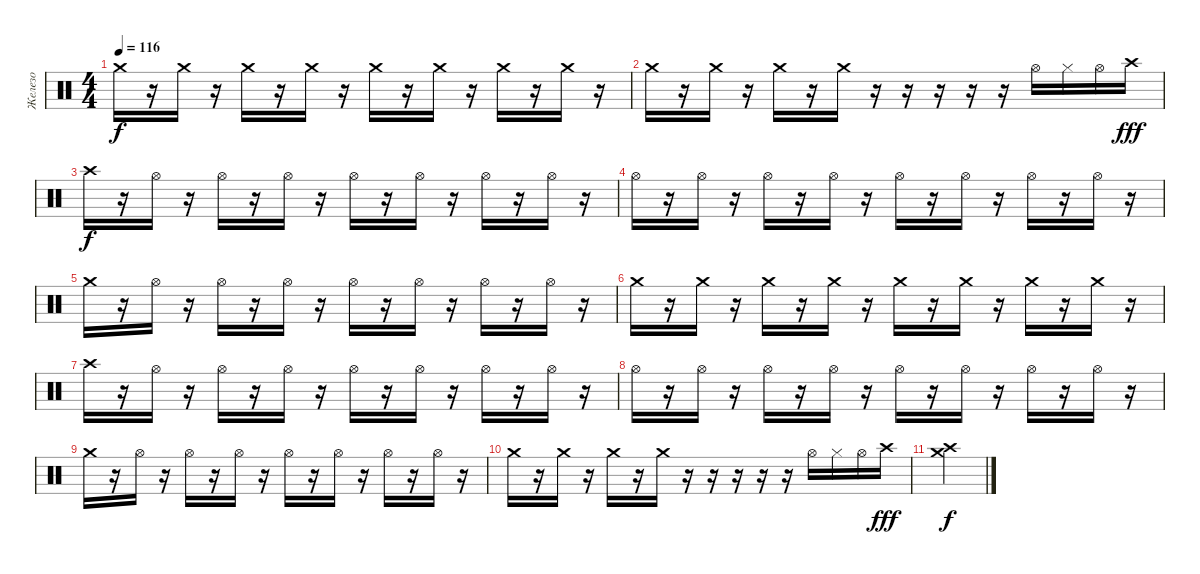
\track ("Железо" "Железо") {instrument percussion}
\staff {score}
\articulation defaults
\ts (4 4)
\tempo 116
\clef neutral
\ks c "Crash medium (hit)".16{dy f}
r.16 "Crash medium (hit)".16 r.16 "Crash medium (hit)".16 r.16 "Crash medium (hit)".16 r.16 "Crash medium (hit)".16 r.16 "Crash medium (hit)".16 r.16 "Crash medium (hit)".16 r.16 "Crash medium (hit)".16 r.16 |
"Crash medium (hit)".16 r.16 "Crash medium (hit)".16 r.16 "Crash medium (hit)".16 r.16 "Crash medium (hit)".16 r.16 r.16 r.16 r.16 r.16 "Hi-Hat (open)".16 "Hi-Hat (closed)".16 "Hi-Hat (open)".16 "Crash high (hit)".16{dy fff} |
"Crash high (hit)".16{dy f} r.16 "Hi-Hat (open)".16 r.16 "Hi-Hat (open)".16 r.16 "Hi-Hat (open)".16 r.16 "Hi-Hat (open)".16 r.16 "Hi-Hat (open)".16 r.16 "Hi-Hat (open)".16 r.16 "Hi-Hat (open)".16 r.16 |
"Hi-Hat (open)".16 r.16 "Hi-Hat (open)".16 r.16 "Hi-Hat (open)".16 r.16 "Hi-Hat (open)".16 r.16 "Hi-Hat (open)".16 r.16 "Hi-Hat (open)".16 r.16 "Hi-Hat (open)".16 r.16 "Hi-Hat (open)".16 r.16 |
"Crash medium (hit)".16 r.16 "Hi-Hat (open)".16 r.16 "Hi-Hat (open)".16 r.16 "Hi-Hat (open)".16 r.16 "Hi-Hat (open)".16 r.16 "Hi-Hat (open)".16 r.16 "Hi-Hat (open)".16 r.16 "Hi-Hat (open)".16 r.16 |
"Crash medium (hit)".16 r.16 "Crash medium (hit)".16 r.16 "Crash medium (hit)".16 r.16 "Crash medium (hit)".16 r.16 "Crash medium (hit)".16 r.16 "Crash medium (hit)".16 r.16 "Crash medium (hit)".16 r.16 "Crash medium (hit)".16 r.16 |
"Crash high (hit)".16 r.16 "Hi-Hat (open)".16 r.16 "Hi-Hat (open)".16 r.16 "Hi-Hat (open)".16 r.16 "Hi-Hat (open)".16 r.16 "Hi-Hat (open)".16 r.16 "Hi-Hat (open)".16 r.16 "Hi-Hat (open)".16 r.16 |
"Hi-Hat (open)".16 r.16 "Hi-Hat (open)".16 r.16 "Hi-Hat (open)".16 r.16 "Hi-Hat (open)".16 r.16 "Hi-Hat (open)".16 r.16 "Hi-Hat (open)".16 r.16 "Hi-Hat (open)".16 r.16 "Hi-Hat (open)".16 r.16 |
"Crash medium (hit)".16 r.16 "Hi-Hat (open)".16 r.16 "Hi-Hat (open)".16 r.16 "Hi-Hat (open)".16 r.16 "Hi-Hat (open)".16 r.16 "Hi-Hat (open)".16 r.16 "Hi-Hat (open)".16 r.16 "Hi-Hat (open)".16 r.16 |
"Crash medium (hit)".16 r.16 "Crash medium (hit)".16 r.16 "Crash medium (hit)".16 r.16 "Crash medium (hit)".16 r.16 r.16 r.16 r.16 r.16 "Hi-Hat (open)".16 "Hi-Hat (closed)".16 "Hi-Hat (open)".16 "Crash high (hit)".16{dy fff} |
("Crash medium (hit)" "Crash high (hit)").4{dy f}
